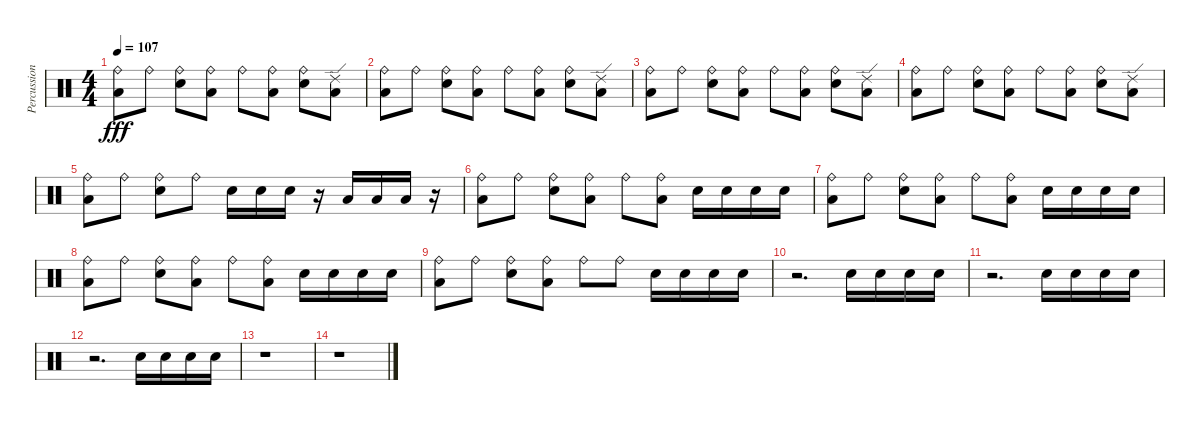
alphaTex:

\track ("Percussions" "Percussion") {instrument percussion}
\staff {score}
\articulation defaults
\ts (4 4)
\tempo 107
\clef neutral
\ks c
("Low Floor Tom (hit)" "Ride (bell)").8{dy fff} "Ride (bell)".8 ("Electric Snare (hit)" "Ride (bell)").8 ("Low Floor Tom (hit)" "Ride (bell)").8 "Ride (bell)".8 ("Low Floor Tom (hit)" "Ride (bell)").8 ("Electric Snare (hit)" "Ride (bell)").8 ("Low Floor Tom (hit)" "Ride (edge) 2").8 |
("Low Floor Tom (hit)" "Ride (bell)").8 "Ride (bell)".8 ("Electric Snare (hit)" "Ride (bell)").8 ("Low Floor Tom (hit)" "Ride (bell)").8 "Ride (bell)".8 ("Low Floor Tom (hit)" "Ride (bell)").8 ("Electric Snare (hit)" "Ride (bell)").8 ("Low Floor Tom (hit)" "Ride (edge) 2").8 |
("Low Floor Tom (hit)" "Ride (bell)").8 "Ride (bell)".8 ("Electric Snare (hit)" "Ride (bell)").8 ("Low Floor Tom (hit)" "Ride (bell)").8 "Ride (bell)".8 ("Low Floor Tom (hit)" "Ride (bell)").8 ("Electric Snare (hit)" "Ride (bell)").8 ("Low Floor Tom (hit)" "Ride (edge) 2").8 |
("Low Floor Tom (hit)" "Ride (bell)").8 "Ride (bell)".8 ("Electric Snare (hit)" "Ride (bell)").8 ("Low Floor Tom (hit)" "Ride (bell)").8 "Ride (bell)".8 ("Low Floor Tom (hit)" "Ride (bell)").8 ("Electric Snare (hit)" "Ride (bell)").8 ("Low Floor Tom (hit)" "Ride (edge) 2").8 |
("Low Floor Tom (hit)" "Ride (bell)").8 "Ride (bell)".8 ("Electric Snare (hit)" "Ride (bell)").8 "Ride (bell)".8 "Electric Snare (hit)".16 "Electric Snare (hit)".16 "Electric Snare (hit)".16 r.16 "Low Floor Tom (hit)".16 "Low Floor Tom (hit)".16 "Low Floor Tom (hit)".16 r.16 |
("Low Floor Tom (hit)" "Ride (bell)").8 "Ride (bell)".8 ("Electric Snare (hit)" "Ride (bell)").8 ("Low Floor Tom (hit)" "Ride (bell)").8 "Ride (bell)".8 ("Low Floor Tom (hit)" "Ride (bell)").8 "Electric Snare (hit)".16 "Electric Snare (hit)".16 "Electric Snare (hit)".16 "Electric Snare (hit)".16 |
("Low Floor Tom (hit)" "Ride (bell)").8 "Ride (bell)".8 ("Electric Snare (hit)" "Ride (bell)").8 ("Low Floor Tom (hit)" "Ride (bell)").8 "Ride (bell)".8 ("Low Floor Tom (hit)" "Ride (bell)").8 "Electric Snare (hit)".16 "Electric Snare (hit)".16 "Electric Snare (hit)".16 "Electric Snare (hit)".16 |
("Low Floor Tom (hit)" "Ride (bell)").8 "Ride (bell)".8 ("Electric Snare (hit)" "Ride (bell)").8 ("Low Floor Tom (hit)" "Ride (bell)").8 "Ride (bell)".8 ("Low Floor Tom (hit)" "Ride (bell)").8 "Electric Snare (hit)".16 "Electric Snare (hit)".16 "Electric Snare (hit)".16 "Electric Snare (hit)".16 |
("Low Floor Tom (hit)" "Ride (bell)").8 "Ride (bell)".8 ("Electric Snare (hit)" "Ride (bell)").8 ("Low Floor Tom (hit)" "Ride (bell)").8 "Ride (bell)".8 "Ride (bell)".8 "Electric Snare (hit)".16 "Electric Snare (hit)".16 "Electric Snare (hit)".16 "Electric Snare (hit)".16 |
r.2{d} "Electric Snare (hit)".16 "Electric Snare (hit)".16 "Electric Snare (hit)".16 "Electric Snare (hit)".16 |
r.2{d} "Electric Snare (hit)".16 "Electric Snare (hit)".16 "Electric Snare (hit)".16 "Electric Snare (hit)".16 |
r.2{d} "Electric Snare (hit)".16 "Electric Snare (hit)".16 "Electric Snare (hit)".16 "Electric Snare (hit)".16 |
r.1 |
r.1
